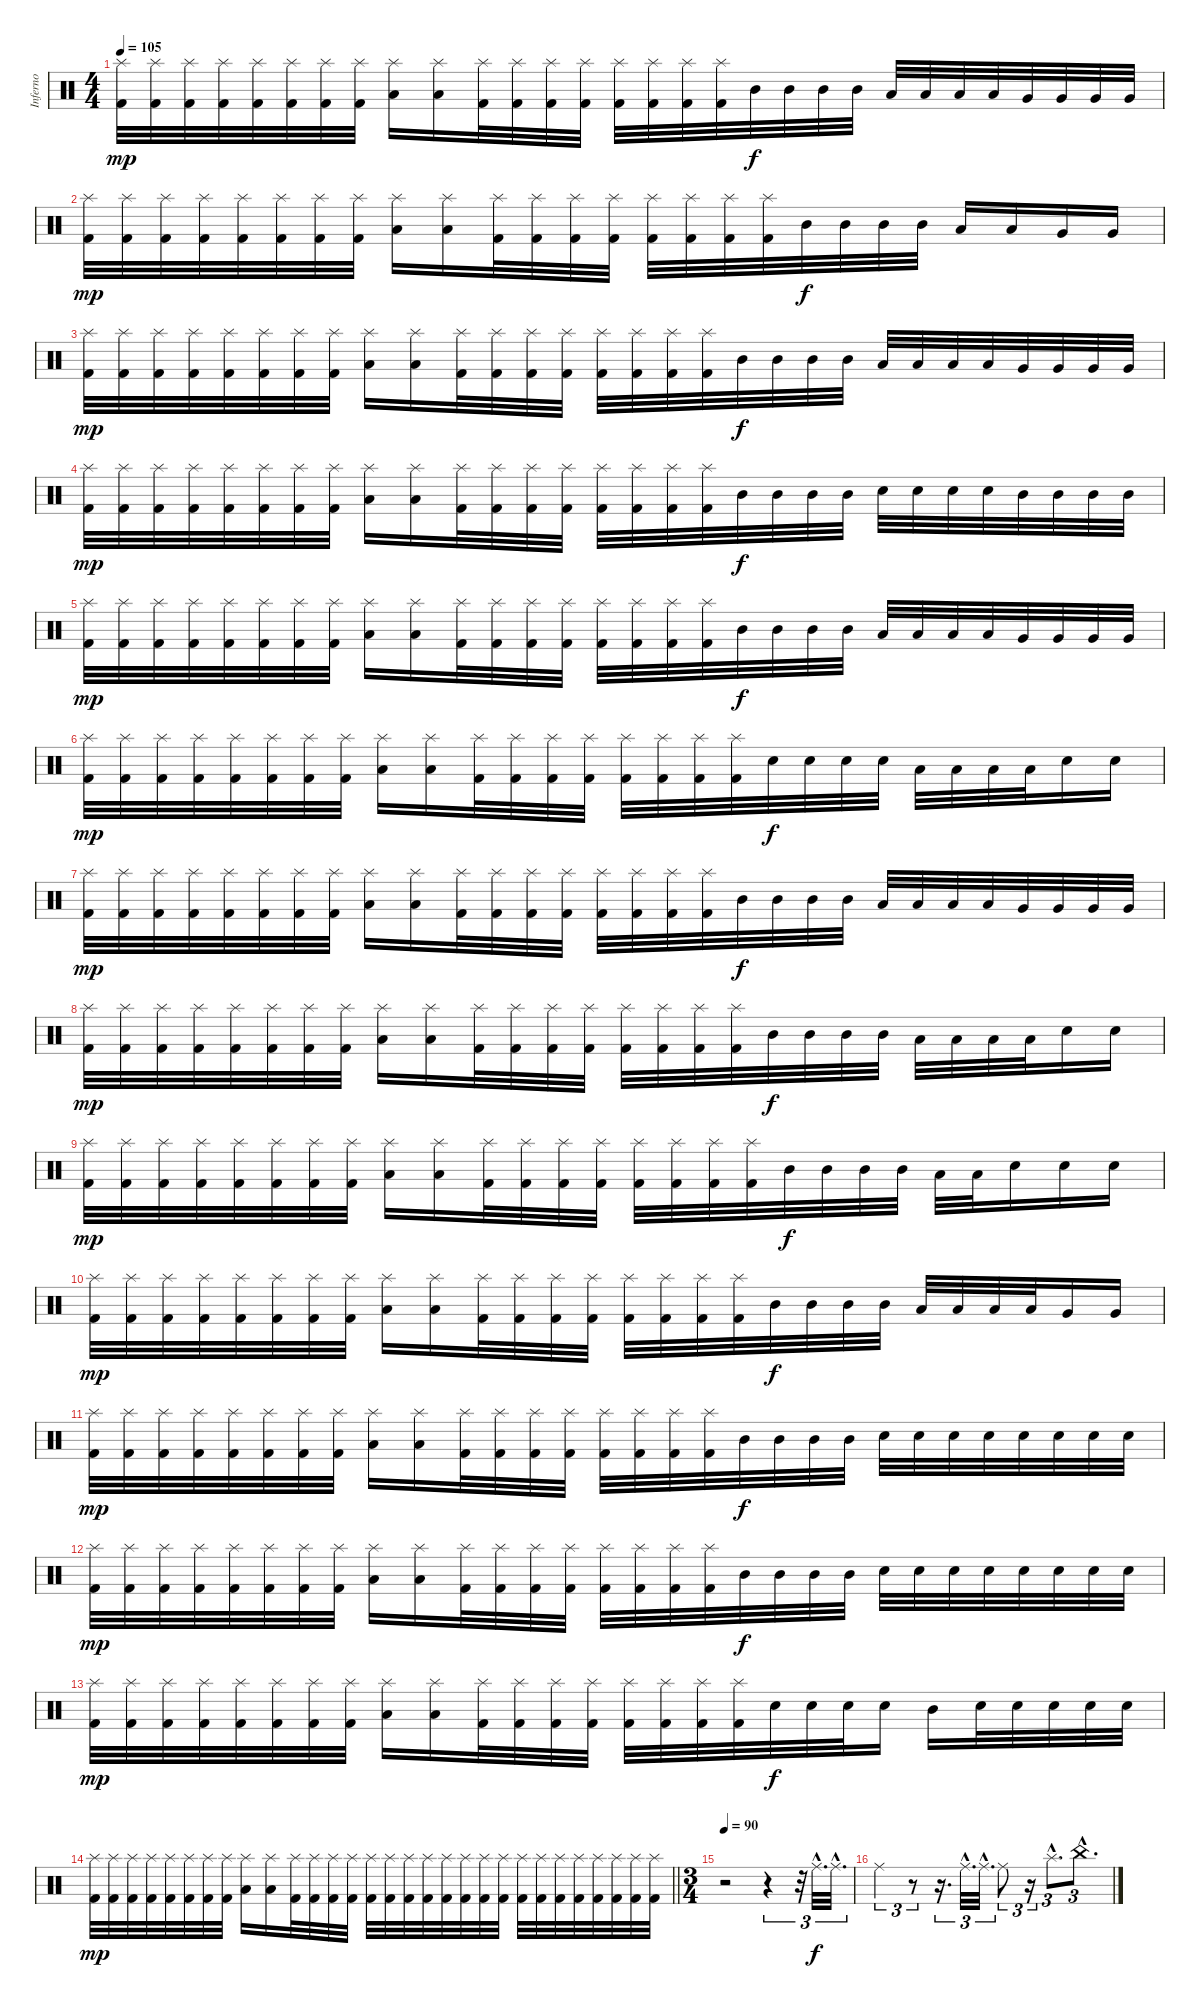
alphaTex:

\track ("Inferno" "Inferno") {instrument percussion}
\staff {score}
\articulation defaults
\ts (4 4)
\tempo 105
\clef neutral
\ks c
("Splash (hit)" "Kick (hit) 2").32{dy mp} ("Splash (hit)" "Kick (hit) 2").32 ("Splash (hit)" "Kick (hit) 2").32 ("Splash (hit)" "Kick (hit) 2").32 ("Splash (hit)" "Kick (hit) 2").32 ("Splash (hit)" "Kick (hit) 2").32 ("Splash (hit)" "Kick (hit) 2").32 ("Splash (hit)" "Kick (hit) 2").32 ("Splash (hit)" "Low Tom (hit)").16 ("Splash (hit)" "Low Tom (hit)").16 ("Splash (hit)" "Kick (hit) 2").32 ("Splash (hit)" "Kick (hit) 2").32 ("Splash (hit)" "Kick (hit) 2").32 ("Splash (hit)" "Kick (hit) 2").32 ("Splash (hit)" "Kick (hit) 2").32 ("Splash (hit)" "Kick (hit) 2").32 ("Splash (hit)" "Kick (hit) 2").32 ("Splash (hit)" "Kick (hit) 2").32 "Mid Tom (hit)".32{dy f} "Mid Tom (hit)".32 "Mid Tom (hit)".32 "Mid Tom (hit)".32 "Low Tom (hit)".32 "Low Tom (hit)".32 "Low Tom (hit)".32 "Low Tom (hit)".32 "Very Low Tom (hit)".32 "Very Low Tom (hit)".32 "Very Low Tom (hit)".32 "Very Low Tom (hit)".32 |
("Splash (hit)" "Kick (hit) 2").32{dy mp} ("Splash (hit)" "Kick (hit) 2").32 ("Splash (hit)" "Kick (hit) 2").32 ("Splash (hit)" "Kick (hit) 2").32 ("Splash (hit)" "Kick (hit) 2").32 ("Splash (hit)" "Kick (hit) 2").32 ("Splash (hit)" "Kick (hit) 2").32 ("Splash (hit)" "Kick (hit) 2").32 ("Splash (hit)" "Low Tom (hit)").16 ("Splash (hit)" "Low Tom (hit)").16 ("Splash (hit)" "Kick (hit) 2").32 ("Splash (hit)" "Kick (hit) 2").32 ("Splash (hit)" "Kick (hit) 2").32 ("Splash (hit)" "Kick (hit) 2").32 ("Splash (hit)" "Kick (hit) 2").32 ("Splash (hit)" "Kick (hit) 2").32 ("Splash (hit)" "Kick (hit) 2").32 ("Splash (hit)" "Kick (hit) 2").32 "Mid Tom (hit)".32{dy f} "Mid Tom (hit)".32 "Mid Tom (hit)".32 "Mid Tom (hit)".32 "Low Tom (hit)".16 "Low Tom (hit)".16 "Very Low Tom (hit)".16 "Very Low Tom (hit)".16 |
("Splash (hit)" "Kick (hit) 2").32{dy mp} ("Splash (hit)" "Kick (hit) 2").32 ("Splash (hit)" "Kick (hit) 2").32 ("Splash (hit)" "Kick (hit) 2").32 ("Splash (hit)" "Kick (hit) 2").32 ("Splash (hit)" "Kick (hit) 2").32 ("Splash (hit)" "Kick (hit) 2").32 ("Splash (hit)" "Kick (hit) 2").32 ("Splash (hit)" "Low Tom (hit)").16 ("Splash (hit)" "Low Tom (hit)").16 ("Splash (hit)" "Kick (hit) 2").32 ("Splash (hit)" "Kick (hit) 2").32 ("Splash (hit)" "Kick (hit) 2").32 ("Splash (hit)" "Kick (hit) 2").32 ("Splash (hit)" "Kick (hit) 2").32 ("Splash (hit)" "Kick (hit) 2").32 ("Splash (hit)" "Kick (hit) 2").32 ("Splash (hit)" "Kick (hit) 2").32 "Mid Tom (hit)".32{dy f} "Mid Tom (hit)".32 "Mid Tom (hit)".32 "Mid Tom (hit)".32 "Low Tom (hit)".32 "Low Tom (hit)".32 "Low Tom (hit)".32 "Low Tom (hit)".32 "Very Low Tom (hit)".32 "Very Low Tom (hit)".32 "Very Low Tom (hit)".32 "Very Low Tom (hit)".32 |
("Splash (hit)" "Kick (hit) 2").32{dy mp} ("Splash (hit)" "Kick (hit) 2").32 ("Splash (hit)" "Kick (hit) 2").32 ("Splash (hit)" "Kick (hit) 2").32 ("Splash (hit)" "Kick (hit) 2").32 ("Splash (hit)" "Kick (hit) 2").32 ("Splash (hit)" "Kick (hit) 2").32 ("Splash (hit)" "Kick (hit) 2").32 ("Splash (hit)" "Low Tom (hit)").16 ("Splash (hit)" "Low Tom (hit)").16 ("Splash (hit)" "Kick (hit) 2").32 ("Splash (hit)" "Kick (hit) 2").32 ("Splash (hit)" "Kick (hit) 2").32 ("Splash (hit)" "Kick (hit) 2").32 ("Splash (hit)" "Kick (hit) 2").32 ("Splash (hit)" "Kick (hit) 2").32 ("Splash (hit)" "Kick (hit) 2").32 ("Splash (hit)" "Kick (hit) 2").32 "Mid Tom (hit)".32{dy f} "Mid Tom (hit)".32 "Mid Tom (hit)".32 "Mid Tom (hit)".32 "Electric Snare (hit)".32 "Electric Snare (hit)".32 "Electric Snare (hit)".32 "Electric Snare (hit)".32 "Mid Tom (hit)".32 "Mid Tom (hit)".32 "Mid Tom (hit)".32 "Mid Tom (hit)".32 |
("Splash (hit)" "Kick (hit) 2").32{dy mp} ("Splash (hit)" "Kick (hit) 2").32 ("Splash (hit)" "Kick (hit) 2").32 ("Splash (hit)" "Kick (hit) 2").32 ("Splash (hit)" "Kick (hit) 2").32 ("Splash (hit)" "Kick (hit) 2").32 ("Splash (hit)" "Kick (hit) 2").32 ("Splash (hit)" "Kick (hit) 2").32 ("Splash (hit)" "Low Tom (hit)").16 ("Splash (hit)" "Low Tom (hit)").16 ("Splash (hit)" "Kick (hit) 2").32 ("Splash (hit)" "Kick (hit) 2").32 ("Splash (hit)" "Kick (hit) 2").32 ("Splash (hit)" "Kick (hit) 2").32 ("Splash (hit)" "Kick (hit) 2").32 ("Splash (hit)" "Kick (hit) 2").32 ("Splash (hit)" "Kick (hit) 2").32 ("Splash (hit)" "Kick (hit) 2").32 "Mid Tom (hit)".32{dy f} "Mid Tom (hit)".32 "Mid Tom (hit)".32 "Mid Tom (hit)".32 "Low Tom (hit)".32 "Low Tom (hit)".32 "Low Tom (hit)".32 "Low Tom (hit)".32 "Very Low Tom (hit)".32 "Very Low Tom (hit)".32 "Very Low Tom (hit)".32 "Very Low Tom (hit)".32 |
("Splash (hit)" "Kick (hit) 2").32{dy mp} ("Splash (hit)" "Kick (hit) 2").32 ("Splash (hit)" "Kick (hit) 2").32 ("Splash (hit)" "Kick (hit) 2").32 ("Splash (hit)" "Kick (hit) 2").32 ("Splash (hit)" "Kick (hit) 2").32 ("Splash (hit)" "Kick (hit) 2").32 ("Splash (hit)" "Kick (hit) 2").32 ("Splash (hit)" "Low Tom (hit)").16 ("Splash (hit)" "Low Tom (hit)").16 ("Splash (hit)" "Kick (hit) 2").32 ("Splash (hit)" "Kick (hit) 2").32 ("Splash (hit)" "Kick (hit) 2").32 ("Splash (hit)" "Kick (hit) 2").32 ("Splash (hit)" "Kick (hit) 2").32 ("Splash (hit)" "Kick (hit) 2").32 ("Splash (hit)" "Kick (hit) 2").32 ("Splash (hit)" "Kick (hit) 2").32 "Electric Snare (hit)".32{dy f} "Electric Snare (hit)".32 "Electric Snare (hit)".32 "Electric Snare (hit)".32 "Low Tom (hit)".32 "Low Tom (hit)".32 "Low Tom (hit)".32 "Low Tom (hit)".32 "Electric Snare (hit)".16 "Electric Snare (hit)".16 |
("Splash (hit)" "Kick (hit) 2").32{dy mp} ("Splash (hit)" "Kick (hit) 2").32 ("Splash (hit)" "Kick (hit) 2").32 ("Splash (hit)" "Kick (hit) 2").32 ("Splash (hit)" "Kick (hit) 2").32 ("Splash (hit)" "Kick (hit) 2").32 ("Splash (hit)" "Kick (hit) 2").32 ("Splash (hit)" "Kick (hit) 2").32 ("Splash (hit)" "Low Tom (hit)").16 ("Splash (hit)" "Low Tom (hit)").16 ("Splash (hit)" "Kick (hit) 2").32 ("Splash (hit)" "Kick (hit) 2").32 ("Splash (hit)" "Kick (hit) 2").32 ("Splash (hit)" "Kick (hit) 2").32 ("Splash (hit)" "Kick (hit) 2").32 ("Splash (hit)" "Kick (hit) 2").32 ("Splash (hit)" "Kick (hit) 2").32 ("Splash (hit)" "Kick (hit) 2").32 "Mid Tom (hit)".32{dy f} "Mid Tom (hit)".32 "Mid Tom (hit)".32 "Mid Tom (hit)".32 "Low Tom (hit)".32 "Low Tom (hit)".32 "Low Tom (hit)".32 "Low Tom (hit)".32 "Very Low Tom (hit)".32 "Very Low Tom (hit)".32 "Very Low Tom (hit)".32 "Very Low Tom (hit)".32 |
("Splash (hit)" "Kick (hit) 2").32{dy mp} ("Splash (hit)" "Kick (hit) 2").32 ("Splash (hit)" "Kick (hit) 2").32 ("Splash (hit)" "Kick (hit) 2").32 ("Splash (hit)" "Kick (hit) 2").32 ("Splash (hit)" "Kick (hit) 2").32 ("Splash (hit)" "Kick (hit) 2").32 ("Splash (hit)" "Kick (hit) 2").32 ("Splash (hit)" "Low Tom (hit)").16 ("Splash (hit)" "Low Tom (hit)").16 ("Splash (hit)" "Kick (hit) 2").32 ("Splash (hit)" "Kick (hit) 2").32 ("Splash (hit)" "Kick (hit) 2").32 ("Splash (hit)" "Kick (hit) 2").32 ("Splash (hit)" "Kick (hit) 2").32 ("Splash (hit)" "Kick (hit) 2").32 ("Splash (hit)" "Kick (hit) 2").32 ("Splash (hit)" "Kick (hit) 2").32 "Mid Tom (hit)".32{dy f} "Mid Tom (hit)".32 "Mid Tom (hit)".32 "Mid Tom (hit)".32 "Low Tom (hit)".32 "Low Tom (hit)".32 "Low Tom (hit)".32 "Low Tom (hit)".32 "Electric Snare (hit)".16 "Electric Snare (hit)".16 |
("Splash (hit)" "Kick (hit) 2").32{dy mp} ("Splash (hit)" "Kick (hit) 2").32 ("Splash (hit)" "Kick (hit) 2").32 ("Splash (hit)" "Kick (hit) 2").32 ("Splash (hit)" "Kick (hit) 2").32 ("Splash (hit)" "Kick (hit) 2").32 ("Splash (hit)" "Kick (hit) 2").32 ("Splash (hit)" "Kick (hit) 2").32 ("Splash (hit)" "Low Tom (hit)").16 ("Splash (hit)" "Low Tom (hit)").16 ("Splash (hit)" "Kick (hit) 2").32 ("Splash (hit)" "Kick (hit) 2").32 ("Splash (hit)" "Kick (hit) 2").32 ("Splash (hit)" "Kick (hit) 2").32 ("Splash (hit)" "Kick (hit) 2").32 ("Splash (hit)" "Kick (hit) 2").32 ("Splash (hit)" "Kick (hit) 2").32 ("Splash (hit)" "Kick (hit) 2").32 "Mid Tom (hit)".32{dy f} "Mid Tom (hit)".32 "Mid Tom (hit)".32 "Mid Tom (hit)".32 "Low Tom (hit)".32 "Low Tom (hit)".32 "Electric Snare (hit)".16 "Electric Snare (hit)".16 "Electric Snare (hit)".16 |
("Splash (hit)" "Kick (hit) 2").32{dy mp} ("Splash (hit)" "Kick (hit) 2").32 ("Splash (hit)" "Kick (hit) 2").32 ("Splash (hit)" "Kick (hit) 2").32 ("Splash (hit)" "Kick (hit) 2").32 ("Splash (hit)" "Kick (hit) 2").32 ("Splash (hit)" "Kick (hit) 2").32 ("Splash (hit)" "Kick (hit) 2").32 ("Splash (hit)" "Low Tom (hit)").16 ("Splash (hit)" "Low Tom (hit)").16 ("Splash (hit)" "Kick (hit) 2").32 ("Splash (hit)" "Kick (hit) 2").32 ("Splash (hit)" "Kick (hit) 2").32 ("Splash (hit)" "Kick (hit) 2").32 ("Splash (hit)" "Kick (hit) 2").32 ("Splash (hit)" "Kick (hit) 2").32 ("Splash (hit)" "Kick (hit) 2").32 ("Splash (hit)" "Kick (hit) 2").32 "Mid Tom (hit)".32{dy f} "Mid Tom (hit)".32 "Mid Tom (hit)".32 "Mid Tom (hit)".32 "Low Tom (hit)".32 "Low Tom (hit)".32 "Low Tom (hit)".32 "Low Tom (hit)".32 "Very Low Tom (hit)".16 "Very Low Tom (hit)".16 |
("Splash (hit)" "Kick (hit) 2").32{dy mp} ("Splash (hit)" "Kick (hit) 2").32 ("Splash (hit)" "Kick (hit) 2").32 ("Splash (hit)" "Kick (hit) 2").32 ("Splash (hit)" "Kick (hit) 2").32 ("Splash (hit)" "Kick (hit) 2").32 ("Splash (hit)" "Kick (hit) 2").32 ("Splash (hit)" "Kick (hit) 2").32 ("Splash (hit)" "Low Tom (hit)").16 ("Splash (hit)" "Low Tom (hit)").16 ("Splash (hit)" "Kick (hit) 2").32 ("Splash (hit)" "Kick (hit) 2").32 ("Splash (hit)" "Kick (hit) 2").32 ("Splash (hit)" "Kick (hit) 2").32 ("Splash (hit)" "Kick (hit) 2").32 ("Splash (hit)" "Kick (hit) 2").32 ("Splash (hit)" "Kick (hit) 2").32 ("Splash (hit)" "Kick (hit) 2").32 "Mid Tom (hit)".32{dy f} "Mid Tom (hit)".32 "Mid Tom (hit)".32 "Mid Tom (hit)".32 "Electric Snare (hit)".32 "Electric Snare (hit)".32 "Electric Snare (hit)".32 "Electric Snare (hit)".32 "Electric Snare (hit)".32 "Electric Snare (hit)".32 "Electric Snare (hit)".32 "Electric Snare (hit)".32 |
("Splash (hit)" "Kick (hit) 2").32{dy mp} ("Splash (hit)" "Kick (hit) 2").32 ("Splash (hit)" "Kick (hit) 2").32 ("Splash (hit)" "Kick (hit) 2").32 ("Splash (hit)" "Kick (hit) 2").32 ("Splash (hit)" "Kick (hit) 2").32 ("Splash (hit)" "Kick (hit) 2").32 ("Splash (hit)" "Kick (hit) 2").32 ("Splash (hit)" "Low Tom (hit)").16 ("Splash (hit)" "Low Tom (hit)").16 ("Splash (hit)" "Kick (hit) 2").32 ("Splash (hit)" "Kick (hit) 2").32 ("Splash (hit)" "Kick (hit) 2").32 ("Splash (hit)" "Kick (hit) 2").32 ("Splash (hit)" "Kick (hit) 2").32 ("Splash (hit)" "Kick (hit) 2").32 ("Splash (hit)" "Kick (hit) 2").32 ("Splash (hit)" "Kick (hit) 2").32 "Mid Tom (hit)".32{dy f} "Mid Tom (hit)".32 "Mid Tom (hit)".32 "Mid Tom (hit)".32 "Electric Snare (hit)".32 "Electric Snare (hit)".32 "Electric Snare (hit)".32 "Electric Snare (hit)".32 "Electric Snare (hit)".32 "Electric Snare (hit)".32 "Electric Snare (hit)".32 "Electric Snare (hit)".32 |
("Splash (hit)" "Kick (hit) 2").32{dy mp} ("Splash (hit)" "Kick (hit) 2").32 ("Splash (hit)" "Kick (hit) 2").32 ("Splash (hit)" "Kick (hit) 2").32 ("Splash (hit)" "Kick (hit) 2").32 ("Splash (hit)" "Kick (hit) 2").32 ("Splash (hit)" "Kick (hit) 2").32 ("Splash (hit)" "Kick (hit) 2").32 ("Splash (hit)" "Low Tom (hit)").16 ("Splash (hit)" "Low Tom (hit)").16 ("Splash (hit)" "Kick (hit) 2").32 ("Splash (hit)" "Kick (hit) 2").32 ("Splash (hit)" "Kick (hit) 2").32 ("Splash (hit)" "Kick (hit) 2").32 ("Splash (hit)" "Kick (hit) 2").32 ("Splash (hit)" "Kick (hit) 2").32 ("Splash (hit)" "Kick (hit) 2").32 ("Splash (hit)" "Kick (hit) 2").32 "Electric Snare (hit)".32{dy f} "Electric Snare (hit)".32 "Electric Snare (hit)".32 "Electric Snare (hit)".16 "Mid Tom (hit)".16 "Electric Snare (hit)".32 "Electric Snare (hit)".32 "Electric Snare (hit)".32 "Electric Snare (hit)".32 "Electric Snare (hit)".32 |
\barLineRight lightlight
("Splash (hit)" "Kick (hit) 2").32{dy mp} ("Splash (hit)" "Kick (hit) 2").32 ("Splash (hit)" "Kick (hit) 2").32 ("Splash (hit)" "Kick (hit) 2").32 ("Splash (hit)" "Kick (hit) 2").32 ("Splash (hit)" "Kick (hit) 2").32 ("Splash (hit)" "Kick (hit) 2").32 ("Splash (hit)" "Kick (hit) 2").32 ("Splash (hit)" "Low Tom (hit)").16 ("Splash (hit)" "Low Tom (hit)").16 ("Splash (hit)" "Kick (hit) 2").32 ("Splash (hit)" "Kick (hit) 2").32 ("Splash (hit)" "Kick (hit) 2").32 ("Splash (hit)" "Kick (hit) 2").32 ("Splash (hit)" "Kick (hit) 2").32 ("Splash (hit)" "Kick (hit) 2").32 ("Splash (hit)" "Kick (hit) 2").32 ("Splash (hit)" "Kick (hit) 2").32 ("Splash (hit)" "Kick (hit) 2").32 ("Splash (hit)" "Kick (hit) 2").32 ("Splash (hit)" "Kick (hit) 2").32 ("Splash (hit)" "Kick (hit) 2").32 ("Splash (hit)" "Kick (hit) 2").32 ("Splash (hit)" "Kick (hit) 2").32 ("Splash (hit)" "Kick (hit) 2").32 ("Splash (hit)" "Kick (hit) 2").32 ("Splash (hit)" "Kick (hit) 2").32 ("Splash (hit)" "Kick (hit) 2").32 ("Splash (hit)" "Kick (hit) 2").32 ("Splash (hit)" "Kick (hit) 2").32 |
\ts (3 4)
\tempo 90
r.2 r.4{tu (3 2)} r.32{tu (3 2)} "Ride (middle)"{hac}.32{d tu (3 2) dy f} "Ride (middle)"{hac}.32{d tu (3 2)} |
"Ride (middle)".4{tu (3 2)} r.8{tu (3 2)} r.16{d tu (3 2)} "Ride (middle)"{hac}.32{d tu (3 2)} "Ride (middle)"{hac}.32{d tu (3 2)} "Ride (middle)".8{tu (3 2)} r.16{tu (3 2)} "Splash (hit)"{hac}.8{d tu (3 2)} "China (hit)"{hac}.8{d tu (3 2)}
